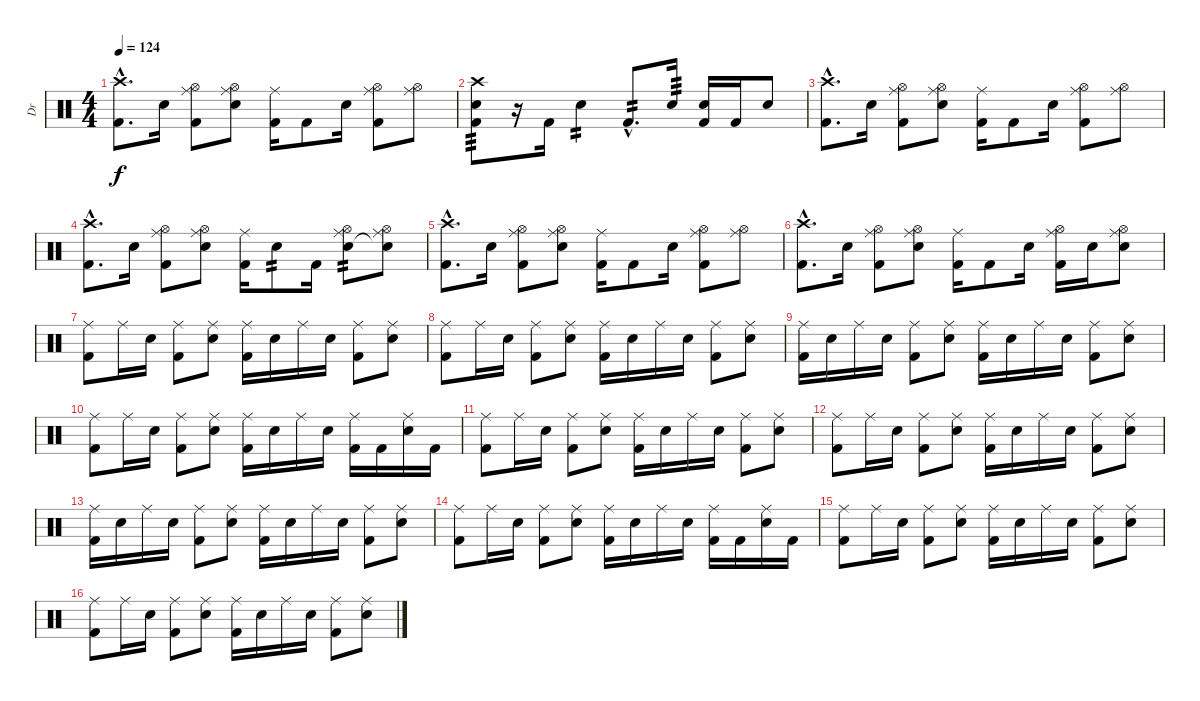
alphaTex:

\track ("Dr" "Dr") {instrument percussion}
\staff {score}
\articulation defaults
\ts (4 4)
\tempo 124
\clef neutral
\ks c
("Crash high (hit)"{hac} "Kick (hit) 2"{hac}).8{d dy f} "Electric Snare (hit)".16 ("Ride (middle)" "Hi-Hat (open)" "Kick (hit) 2").8 ("Ride (middle)" "Hi-Hat (open)" "Electric Snare (hit)").8 ("Ride (middle)" "Kick (hit) 2").16 "Kick (hit) 2".8 "Electric Snare (hit)".16 ("Ride (middle)" "Hi-Hat (open)" "Kick (hit) 2").8 ("Ride (middle)" "Hi-Hat (open)").8 |
("Crash high (hit)" "Electric Snare (hit)" "Kick (hit) 2").8{tp 3} r.16 "Kick (hit) 2".16 "Electric Snare (hit)".4{tp 2} "Kick (hit) 2"{hac}.8{d tp 2} "Electric Snare (hit)".16{tp 3} ("Electric Snare (hit)" "Kick (hit) 2").16 "Kick (hit) 2".16 "Electric Snare (hit)".8 |
("Crash high (hit)"{hac} "Kick (hit) 2"{hac}).8{d} "Electric Snare (hit)".16 ("Ride (middle)" "Hi-Hat (open)" "Kick (hit) 2").8 ("Ride (middle)" "Hi-Hat (open)" "Electric Snare (hit)").8 ("Ride (middle)" "Kick (hit) 2").16 "Kick (hit) 2".8 "Electric Snare (hit)".16 ("Ride (middle)" "Hi-Hat (open)" "Kick (hit) 2").8 ("Ride (middle)" "Hi-Hat (open)").8 |
("Crash high (hit)"{hac} "Kick (hit) 2"{hac}).8{d} "Electric Snare (hit)".16 ("Ride (middle)" "Hi-Hat (open)" "Kick (hit) 2").8 ("Ride (middle)" "Hi-Hat (open)" "Electric Snare (hit)").8 ("Ride (middle)" "Kick (hit) 2").16 "Electric Snare (hit)".8{tp 2} "Kick (hit) 2".16 ("Ride (middle)" "Hi-Hat (open)" "Electric Snare (hit)").8{tp 2} ("Ride (middle)" "Hi-Hat (open)" "Snare (hit)"{t}).8 |
("Crash high (hit)"{hac} "Kick (hit) 2"{hac}).8{d} "Electric Snare (hit)".16 ("Ride (middle)" "Hi-Hat (open)" "Kick (hit) 2").8 ("Ride (middle)" "Hi-Hat (open)" "Electric Snare (hit)").8 ("Ride (middle)" "Kick (hit) 2").16 "Kick (hit) 2".8 "Electric Snare (hit)".16 ("Ride (middle)" "Hi-Hat (open)" "Kick (hit) 2").8 ("Ride (middle)" "Hi-Hat (open)").8 |
("Crash high (hit)"{hac} "Kick (hit) 2"{hac}).8{d} "Electric Snare (hit)".16 ("Ride (middle)" "Hi-Hat (open)" "Kick (hit) 2").8 ("Ride (middle)" "Hi-Hat (open)" "Electric Snare (hit)").8 ("Ride (middle)" "Kick (hit) 2").16 "Kick (hit) 2".8 "Electric Snare (hit)".16 ("Ride (middle)" "Hi-Hat (open)" "Kick (hit) 2").16 "Electric Snare (hit)".16 ("Ride (middle)" "Hi-Hat (open)" "Electric Snare (hit)").8 |
("Ride (middle)" "Kick (hit) 2").8 "Ride (middle)".16 "Electric Snare (hit)".16 ("Ride (middle)" "Kick (hit) 2").8 ("Ride (middle)" "Electric Snare (hit)").8 ("Ride (middle)" "Kick (hit) 2").16 "Electric Snare (hit)".16 "Ride (middle)".16 "Electric Snare (hit)".16 ("Ride (middle)" "Kick (hit) 2").8 ("Ride (middle)" "Electric Snare (hit)").8 |
("Ride (middle)" "Kick (hit) 2").8 "Ride (middle)".16 "Electric Snare (hit)".16 ("Ride (middle)" "Kick (hit) 2").8 ("Ride (middle)" "Electric Snare (hit)").8 ("Ride (middle)" "Kick (hit) 2").16 "Electric Snare (hit)".16 "Ride (middle)".16 "Electric Snare (hit)".16 ("Ride (middle)" "Kick (hit) 2").8 ("Ride (middle)" "Electric Snare (hit)").8 |
("Ride (middle)" "Kick (hit) 2").16 "Electric Snare (hit)".16 "Ride (middle)".16 "Electric Snare (hit)".16 ("Ride (middle)" "Kick (hit) 2").8 ("Ride (middle)" "Electric Snare (hit)").8 ("Ride (middle)" "Kick (hit) 2").16 "Electric Snare (hit)".16 "Ride (middle)".16 "Electric Snare (hit)".16 ("Ride (middle)" "Kick (hit) 2").8 ("Ride (middle)" "Electric Snare (hit)").8 |
("Ride (middle)" "Kick (hit) 2").8 "Ride (middle)".16 "Electric Snare (hit)".16 ("Ride (middle)" "Kick (hit) 2").8 ("Ride (middle)" "Electric Snare (hit)").8 ("Ride (middle)" "Kick (hit) 2").16 "Electric Snare (hit)".16 "Ride (middle)".16 "Electric Snare (hit)".16 ("Ride (middle)" "Kick (hit) 2").16 "Kick (hit) 2".16 ("Ride (middle)" "Electric Snare (hit)").16 "Kick (hit) 2".16 |
("Ride (middle)" "Kick (hit) 2").8 "Ride (middle)".16 "Electric Snare (hit)".16 ("Ride (middle)" "Kick (hit) 2").8 ("Ride (middle)" "Electric Snare (hit)").8 ("Ride (middle)" "Kick (hit) 2").16 "Electric Snare (hit)".16 "Ride (middle)".16 "Electric Snare (hit)".16 ("Ride (middle)" "Kick (hit) 2").8 ("Ride (middle)" "Electric Snare (hit)").8 |
("Ride (middle)" "Kick (hit) 2").8 "Ride (middle)".16 "Electric Snare (hit)".16 ("Ride (middle)" "Kick (hit) 2").8 ("Ride (middle)" "Electric Snare (hit)").8 ("Ride (middle)" "Kick (hit) 2").16 "Electric Snare (hit)".16 "Ride (middle)".16 "Electric Snare (hit)".16 ("Ride (middle)" "Kick (hit) 2").8 ("Ride (middle)" "Electric Snare (hit)").8 |
("Ride (middle)" "Kick (hit) 2").16 "Electric Snare (hit)".16 "Ride (middle)".16 "Electric Snare (hit)".16 ("Ride (middle)" "Kick (hit) 2").8 ("Ride (middle)" "Electric Snare (hit)").8 ("Ride (middle)" "Kick (hit) 2").16 "Electric Snare (hit)".16 "Ride (middle)".16 "Electric Snare (hit)".16 ("Ride (middle)" "Kick (hit) 2").8 ("Ride (middle)" "Electric Snare (hit)").8 |
("Ride (middle)" "Kick (hit) 2").8 "Ride (middle)".16 "Electric Snare (hit)".16 ("Ride (middle)" "Kick (hit) 2").8 ("Ride (middle)" "Electric Snare (hit)").8 ("Ride (middle)" "Kick (hit) 2").16 "Electric Snare (hit)".16 "Ride (middle)".16 "Electric Snare (hit)".16 ("Ride (middle)" "Kick (hit) 2").16 "Kick (hit) 2".16 ("Ride (middle)" "Electric Snare (hit)").16 "Kick (hit) 2".16 |
("Ride (middle)" "Kick (hit) 2").8 "Ride (middle)".16 "Electric Snare (hit)".16 ("Ride (middle)" "Kick (hit) 2").8 ("Ride (middle)" "Electric Snare (hit)").8 ("Ride (middle)" "Kick (hit) 2").16 "Electric Snare (hit)".16 "Ride (middle)".16 "Electric Snare (hit)".16 ("Ride (middle)" "Kick (hit) 2").8 ("Ride (middle)" "Electric Snare (hit)").8 |
("Ride (middle)" "Kick (hit) 2").8 "Ride (middle)".16 "Electric Snare (hit)".16 ("Ride (middle)" "Kick (hit) 2").8 ("Ride (middle)" "Electric Snare (hit)").8 ("Ride (middle)" "Kick (hit) 2").16 "Electric Snare (hit)".16 "Ride (middle)".16 "Electric Snare (hit)".16 ("Ride (middle)" "Kick (hit) 2").8 ("Ride (middle)" "Electric Snare (hit)").8
